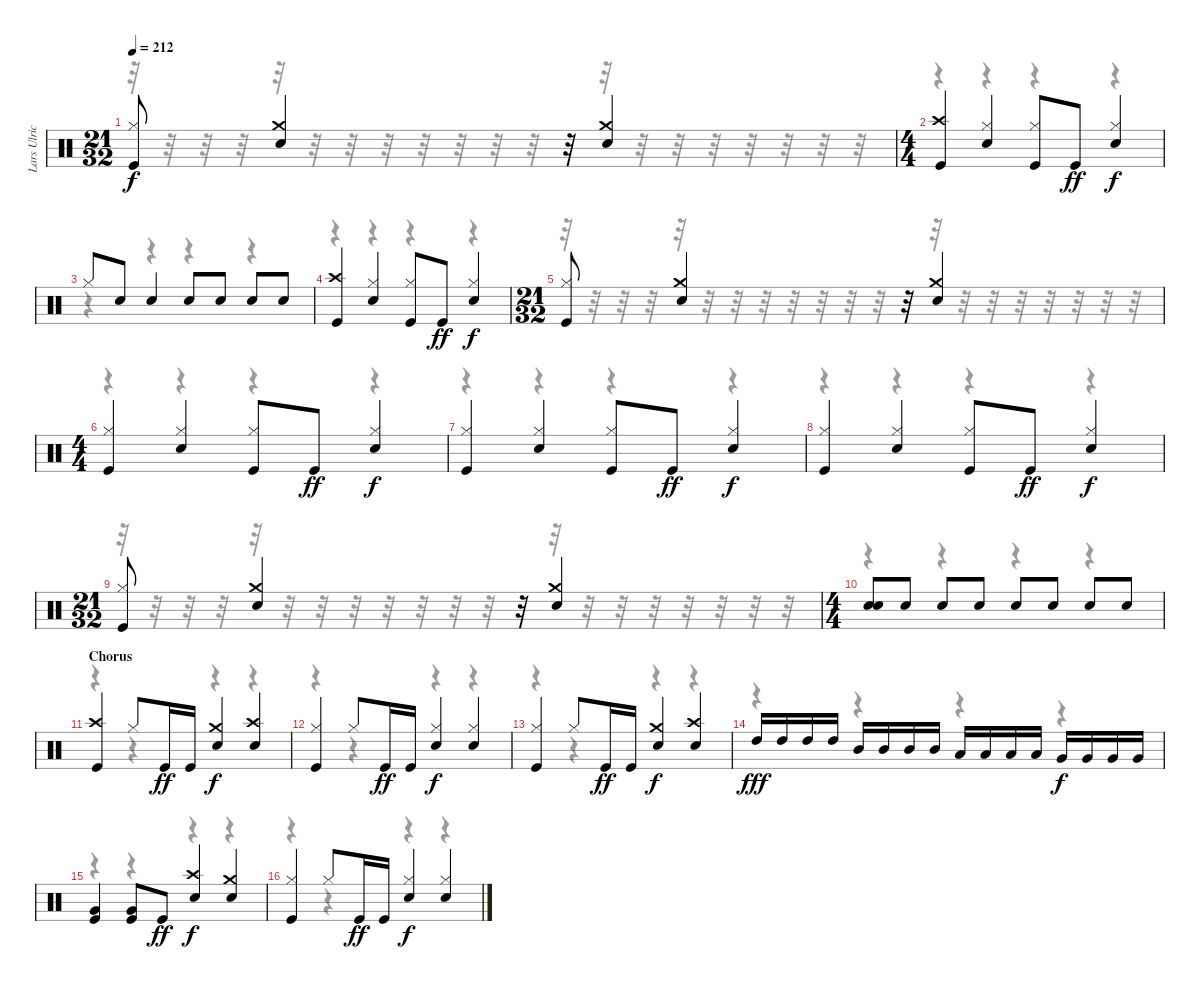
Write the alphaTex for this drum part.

\track ("Lars Ulrich" "Lars Ulric") {instrument percussion}
\staff {score}
\articulation defaults
\voice
\ts (21 32)
\tempo 212
\clef neutral
\ks c
("Hi-Hat (closed)" "Kick (hit)").8{dy f} ("Crash medium (hit)" "Snare (hit) 2").4 r.32 ("Crash medium (hit)" "Snare (hit) 2").4 |
\ts (4 4)
("Crash high (hit)" "Kick (hit)").4 ("Hi-Hat (closed)" "Snare (hit) 2").4 ("Hi-Hat (closed)" "Kick (hit)").8 "Kick (hit)".8{dy ff} ("Hi-Hat (closed)" "Snare (hit) 2").4{dy f} |
"Hi-Hat (closed)".8 "Snare (hit) 2".8 "Snare (hit) 2".4 "Snare (hit) 2".8 "Snare (hit) 2".8 "Snare (hit) 2".8 "Snare (hit) 2".8 |
("Crash high (hit)" "Kick (hit)").4 ("Hi-Hat (closed)" "Snare (hit) 2").4 ("Hi-Hat (closed)" "Kick (hit)").8 "Kick (hit)".8{dy ff} ("Hi-Hat (closed)" "Snare (hit) 2").4{dy f} |
\ts (21 32)
("Hi-Hat (closed)" "Kick (hit)").8 ("Crash medium (hit)" "Snare (hit) 2").4 r.32 ("Crash medium (hit)" "Snare (hit) 2").4 |
\ts (4 4)
("Hi-Hat (closed)" "Kick (hit)").4 ("Hi-Hat (closed)" "Snare (hit) 2").4 ("Hi-Hat (closed)" "Kick (hit)").8 "Kick (hit)".8{dy ff} ("Hi-Hat (closed)" "Snare (hit) 2").4{dy f} |
("Hi-Hat (closed)" "Kick (hit)").4 ("Hi-Hat (closed)" "Snare (hit) 2").4 ("Hi-Hat (closed)" "Kick (hit)").8 "Kick (hit)".8{dy ff} ("Hi-Hat (closed)" "Snare (hit) 2").4{dy f} |
("Hi-Hat (closed)" "Kick (hit)").4 ("Hi-Hat (closed)" "Snare (hit) 2").4 ("Hi-Hat (closed)" "Kick (hit)").8 "Kick (hit)".8{dy ff} ("Hi-Hat (closed)" "Snare (hit) 2").4{dy f} |
\ts (21 32)
("Hi-Hat (closed)" "Kick (hit)").8 ("Crash medium (hit)" "Snare (hit) 2").4 r.32 ("Crash medium (hit)" "Snare (hit) 2").4 |
\ts (4 4)
("Snare (hit) 2" "Snare (hit) 2").8 "Snare (hit) 2".8 "Snare (hit) 2".8 "Snare (hit) 2".8 "Snare (hit) 2".8 "Snare (hit) 2".8 "Snare (hit) 2".8 "Snare (hit) 2".8 |
\section ("" "Chorus")
("Crash high (hit)" "Kick (hit)").4 "Hi-Hat (closed)".8 "Kick (hit)".16{dy ff} "Kick (hit)".16 ("Crash medium (hit)" "Snare (hit) 2").4{dy f} ("Crash high (hit)" "Snare (hit) 2").4 |
("Hi-Hat (closed)" "Kick (hit)").4 "Hi-Hat (closed)".8 "Kick (hit)".16{dy ff} "Kick (hit)".16 ("Hi-Hat (closed)" "Snare (hit) 2").4{dy f} ("Hi-Hat (closed)" "Snare (hit) 2").4 |
("Hi-Hat (closed)" "Kick (hit)").4 "Hi-Hat (closed)".8 "Kick (hit)".16{dy ff} "Kick (hit)".16 ("Crash medium (hit)" "Snare (hit) 2").4{dy f} ("Crash high (hit)" "Snare (hit) 2").4 |
"High Tom (hit)".16{dy fff} "High Tom (hit)".16 "High Tom (hit)".16 "High Tom (hit)".16 "Mid Tom (hit)".16 "Mid Tom (hit)".16 "Mid Tom (hit)".16 "Mid Tom (hit)".16 "Low Tom (hit)".16 "Low Tom (hit)".16 "Low Tom (hit)".16 "Low Tom (hit)".16 "Very Low Tom (hit)".16{dy f} "Very Low Tom (hit)".16 "Very Low Tom (hit)".16 "Very Low Tom (hit)".16 |
("Very Low Tom (hit)" "Kick (hit)").4 ("Very Low Tom (hit)" "Kick (hit)").8 "Kick (hit)".8{dy ff} ("Crash high (hit)" "Snare (hit) 2").4{dy f} ("Crash medium (hit)" "Snare (hit) 2").4 |
("Hi-Hat (closed)" "Kick (hit)").4 "Hi-Hat (closed)".8 "Kick (hit)".16{dy ff} "Kick (hit)".16 ("Hi-Hat (closed)" "Snare (hit) 2").4{dy f} ("Hi-Hat (closed)" "Snare (hit) 2").4
\voice
\clef neutral
\ottava regular
\simile none
\ks c
r.32{dy f} r.32 r.32 r.32 r.32 r.32 r.32 r.32 r.32 r.32 r.32 r.32 r.32 r.32 r.32 r.32 r.32 r.32 r.32 r.32 r.32 |
r.4 r.4 r.4 r.4 |
r.4 r.4 r.4 r.4 |
r.4 r.4 r.4 r.4 |
r.32 r.32 r.32 r.32 r.32 r.32 r.32 r.32 r.32 r.32 r.32 r.32 r.32 r.32 r.32 r.32 r.32 r.32 r.32 r.32 r.32 |
r.4 r.4 r.4 r.4 |
r.4 r.4 r.4 r.4 |
r.4 r.4 r.4 r.4 |
r.32 r.32 r.32 r.32 r.32 r.32 r.32 r.32 r.32 r.32 r.32 r.32 r.32 r.32 r.32 r.32 r.32 r.32 r.32 r.32 r.32 |
r.4 r.4 r.4 r.4 |
r.4 r.4 r.4 r.4 |
r.4 r.4 r.4 r.4 |
r.4 r.4 r.4 r.4 |
r.4 r.4 r.4 r.4 |
r.4 r.4 r.4 r.4 |
r.4 r.4 r.4 r.4
